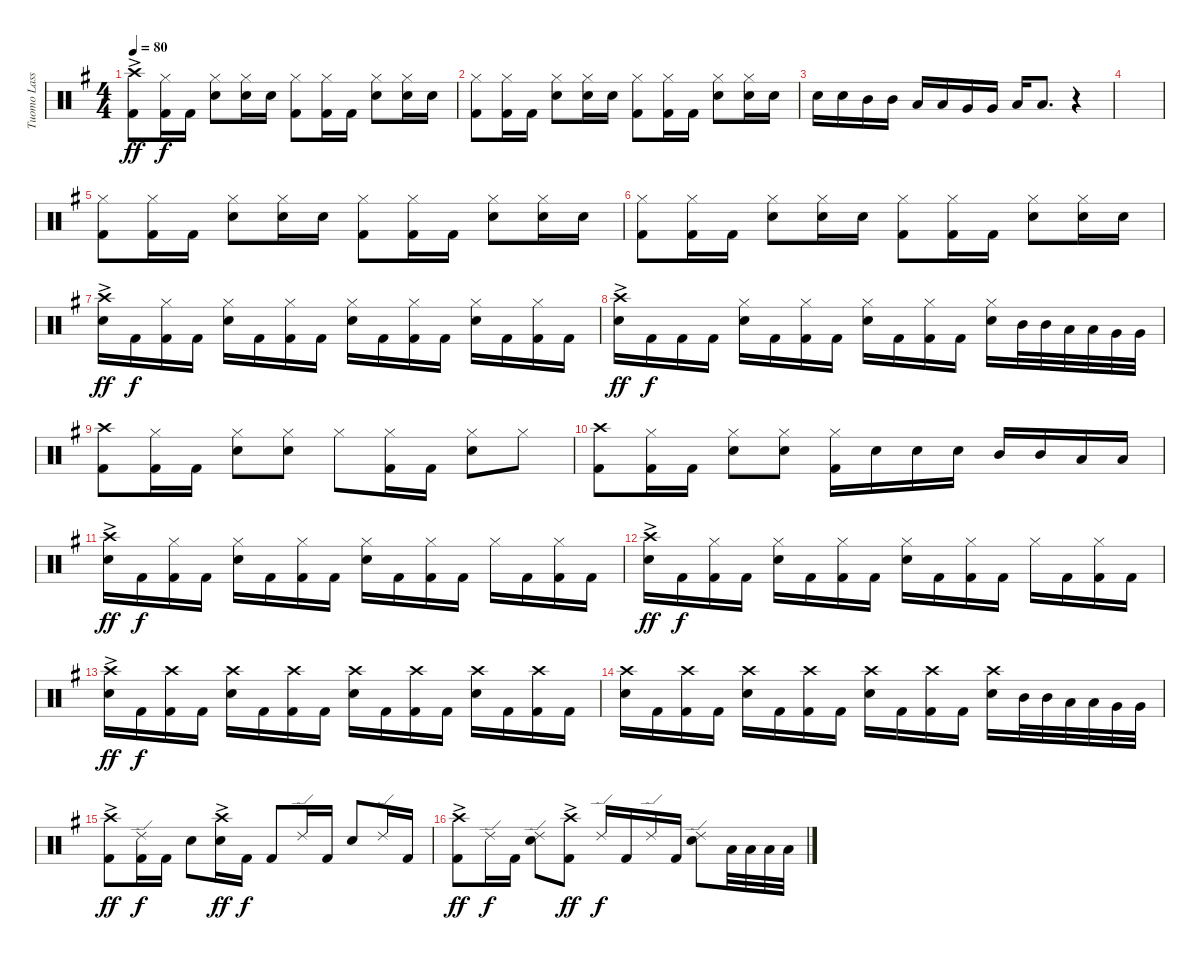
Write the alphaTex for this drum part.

\track ("Tuomo Lassila" "Tuomo Lass") {instrument percussion}
\staff {score}
\articulation defaults
\ts (4 4)
\tempo 80
\clef neutral
\ks g
("Crash high (hit)"{ac} "Kick (hit) 2"{ac}).8{dy ff} ("Hi-Hat (closed)" "Kick (hit) 2").16{dy f} "Kick (hit) 2".16 ("Hi-Hat (closed)" "Electric Snare (hit)").8 ("Hi-Hat (closed)" "Electric Snare (hit)").16 "Electric Snare (hit)".16 ("Hi-Hat (closed)" "Kick (hit) 2").8 ("Hi-Hat (closed)" "Kick (hit) 2").16 "Kick (hit) 2".16 ("Hi-Hat (closed)" "Electric Snare (hit)").8 ("Hi-Hat (closed)" "Electric Snare (hit)").16 "Electric Snare (hit)".16 |
("Hi-Hat (closed)" "Kick (hit) 2").8 ("Hi-Hat (closed)" "Kick (hit) 2").16 "Kick (hit) 2".16 ("Hi-Hat (closed)" "Electric Snare (hit)").8 ("Hi-Hat (closed)" "Electric Snare (hit)").16 "Electric Snare (hit)".16 ("Hi-Hat (closed)" "Kick (hit) 2").8 ("Hi-Hat (closed)" "Kick (hit) 2").16 "Kick (hit) 2".16 ("Hi-Hat (closed)" "Electric Snare (hit)").8 ("Hi-Hat (closed)" "Electric Snare (hit)").16 "Electric Snare (hit)".16 |
"Electric Snare (hit)".16 "Electric Snare (hit)".16 "Mid Tom (hit)".16 "Mid Tom (hit)".16 "Low Tom (hit)".16 "Low Tom (hit)".16 "Very Low Tom (hit)".16 "Very Low Tom (hit)".16 "Low Floor Tom (hit)".16 "Low Floor Tom (hit)".8{d} r.4 |
|
("Hi-Hat (closed)" "Kick (hit) 2").8 ("Hi-Hat (closed)" "Kick (hit) 2").16 "Kick (hit) 2".16 ("Hi-Hat (closed)" "Electric Snare (hit)").8 ("Hi-Hat (closed)" "Electric Snare (hit)").16 "Electric Snare (hit)".16 ("Hi-Hat (closed)" "Kick (hit) 2").8 ("Hi-Hat (closed)" "Kick (hit) 2").16 "Kick (hit) 2".16 ("Hi-Hat (closed)" "Electric Snare (hit)").8 ("Hi-Hat (closed)" "Electric Snare (hit)").16 "Electric Snare (hit)".16 |
("Hi-Hat (closed)" "Kick (hit) 2").8 ("Hi-Hat (closed)" "Kick (hit) 2").16 "Kick (hit) 2".16 ("Hi-Hat (closed)" "Electric Snare (hit)").8 ("Hi-Hat (closed)" "Electric Snare (hit)").16 "Electric Snare (hit)".16 ("Hi-Hat (closed)" "Kick (hit) 2").8 ("Hi-Hat (closed)" "Kick (hit) 2").16 "Kick (hit) 2".16 ("Hi-Hat (closed)" "Electric Snare (hit)").8 ("Hi-Hat (closed)" "Electric Snare (hit)").16 "Electric Snare (hit)".16 |
("Crash high (hit)"{ac} "Electric Snare (hit)"{ac}).16{dy ff} "Kick (hit) 2".16{dy f} ("Hi-Hat (closed)" "Kick (hit) 2").16 "Kick (hit) 2".16 ("Hi-Hat (closed)" "Electric Snare (hit)").16 "Kick (hit) 2".16 ("Hi-Hat (closed)" "Kick (hit) 2").16 "Kick (hit) 2".16 ("Hi-Hat (closed)" "Electric Snare (hit)").16 "Kick (hit) 2".16 ("Hi-Hat (closed)" "Kick (hit) 2").16 "Kick (hit) 2".16 ("Hi-Hat (closed)" "Electric Snare (hit)").16 "Kick (hit) 2".16 ("Hi-Hat (closed)" "Kick (hit) 2").16 "Kick (hit) 2".16 |
("Crash high (hit)"{ac} "Electric Snare (hit)"{ac}).16{dy ff} "Kick (hit) 2".16{dy f} "Kick (hit) 2".16 "Kick (hit) 2".16 ("Hi-Hat (closed)" "Electric Snare (hit)").16 "Kick (hit) 2".16 ("Hi-Hat (closed)" "Kick (hit) 2").16 "Kick (hit) 2".16 ("Hi-Hat (closed)" "Electric Snare (hit)").16 "Kick (hit) 2".16 ("Hi-Hat (closed)" "Kick (hit) 2").16 "Kick (hit) 2".16 ("Hi-Hat (closed)" "Electric Snare (hit)").16 "Mid Tom (hit)".32 "Mid Tom (hit)".32 "Low Tom (hit)".32 "Low Tom (hit)".32 "Very Low Tom (hit)".32 "Very Low Tom (hit)".32 |
("Crash high (hit)" "Kick (hit) 2").8 ("Hi-Hat (closed)" "Kick (hit) 2").16 "Kick (hit) 2".16 ("Hi-Hat (closed)" "Electric Snare (hit)").8 ("Hi-Hat (closed)" "Electric Snare (hit)").8 "Hi-Hat (closed)".8 ("Hi-Hat (closed)" "Kick (hit) 2").16 "Kick (hit) 2".16 ("Hi-Hat (closed)" "Electric Snare (hit)").8 "Hi-Hat (closed)".8 |
("Crash high (hit)" "Kick (hit) 2").8 ("Hi-Hat (closed)" "Kick (hit) 2").16 "Kick (hit) 2".16 ("Hi-Hat (closed)" "Electric Snare (hit)").8 ("Hi-Hat (closed)" "Electric Snare (hit)").8 ("Hi-Hat (closed)" "Kick (hit) 2").16 "Electric Snare (hit)".16 "Electric Snare (hit)".16 "Electric Snare (hit)".16 "Mid Tom (hit)".16 "Mid Tom (hit)".16 "Low Tom (hit)".16 "Low Tom (hit)".16 |
("Crash high (hit)"{ac} "Electric Snare (hit)"{ac}).16{dy ff} "Kick (hit) 2".16{dy f} ("Hi-Hat (closed)" "Kick (hit) 2").16 "Kick (hit) 2".16 ("Hi-Hat (closed)" "Electric Snare (hit)").16 "Kick (hit) 2".16 ("Hi-Hat (closed)" "Kick (hit) 2").16 "Kick (hit) 2".16 ("Hi-Hat (closed)" "Electric Snare (hit)").16 "Kick (hit) 2".16 ("Hi-Hat (closed)" "Kick (hit) 2").16 "Kick (hit) 2".16 "Hi-Hat (closed)".16 "Kick (hit) 2".16 ("Hi-Hat (closed)" "Kick (hit) 2").16 "Kick (hit) 2".16 |
("Crash high (hit)"{ac} "Electric Snare (hit)"{ac}).16{dy ff} "Kick (hit) 2".16{dy f} ("Hi-Hat (closed)" "Kick (hit) 2").16 "Kick (hit) 2".16 ("Hi-Hat (closed)" "Electric Snare (hit)").16 "Kick (hit) 2".16 ("Hi-Hat (closed)" "Kick (hit) 2").16 "Kick (hit) 2".16 ("Hi-Hat (closed)" "Electric Snare (hit)").16 "Kick (hit) 2".16 ("Hi-Hat (closed)" "Kick (hit) 2").16 "Kick (hit) 2".16 "Hi-Hat (closed)".16 "Kick (hit) 2".16 ("Hi-Hat (closed)" "Kick (hit) 2").16 "Kick (hit) 2".16 |
("Crash high (hit)"{ac} "Electric Snare (hit)"{ac}).16{dy ff} "Kick (hit) 2".16{dy f} ("Crash high (hit)" "Kick (hit) 2").16 "Kick (hit) 2".16 ("Crash high (hit)" "Electric Snare (hit)").16 "Kick (hit) 2".16 ("Crash high (hit)" "Kick (hit) 2").16 "Kick (hit) 2".16 ("Crash high (hit)" "Electric Snare (hit)").16 "Kick (hit) 2".16 ("Crash high (hit)" "Kick (hit) 2").16 "Kick (hit) 2".16 ("Crash high (hit)" "Electric Snare (hit)").16 "Kick (hit) 2".16 ("Crash high (hit)" "Kick (hit) 2").16 "Kick (hit) 2".16 |
("Crash high (hit)" "Electric Snare (hit)").16 "Kick (hit) 2".16 ("Crash high (hit)" "Kick (hit) 2").16 "Kick (hit) 2".16 ("Crash high (hit)" "Electric Snare (hit)").16 "Kick (hit) 2".16 ("Crash high (hit)" "Kick (hit) 2").16 "Kick (hit) 2".16 ("Crash high (hit)" "Electric Snare (hit)").16 "Kick (hit) 2".16 ("Crash high (hit)" "Kick (hit) 2").16 "Kick (hit) 2".16 ("Crash high (hit)" "Electric Snare (hit)").16 "Mid Tom (hit)".32 "Mid Tom (hit)".32 "Low Tom (hit)".32 "Low Tom (hit)".32 "Very Low Tom (hit)".32 "Very Low Tom (hit)".32 |
("Crash high (hit)"{ac} "Kick (hit) 2"{ac}).8{dy ff} ("Ride (edge) 2" "Kick (hit) 2").16{dy f} "Kick (hit) 2".16 "Electric Snare (hit)".8 ("Crash high (hit)"{ac} "Electric Snare (hit)"{ac}).16{dy ff} "Kick (hit) 2".16{dy f} "Kick (hit) 2".8 "Ride (edge) 2".16 "Kick (hit) 2".16 "Electric Snare (hit)".8 "Ride (edge) 2".16 "Kick (hit) 2".16 |
("Crash high (hit)"{ac} "Kick (hit) 2"{ac}).8{dy ff} "Ride (edge) 2".16{dy f} "Kick (hit) 2".16 ("Ride (edge) 2" "Electric Snare (hit)").8 ("Crash high (hit)"{ac} "Kick (hit) 2"{ac}).8{dy ff} "Ride (edge) 2".16{dy f} "Kick (hit) 2".16 "Ride (edge) 2".16 "Kick (hit) 2".16 ("Ride (edge) 2" "Electric Snare (hit)").8 "Low Tom (hit)".32 "Low Tom (hit)".32 "Low Tom (hit)".32 "Low Tom (hit)".32
